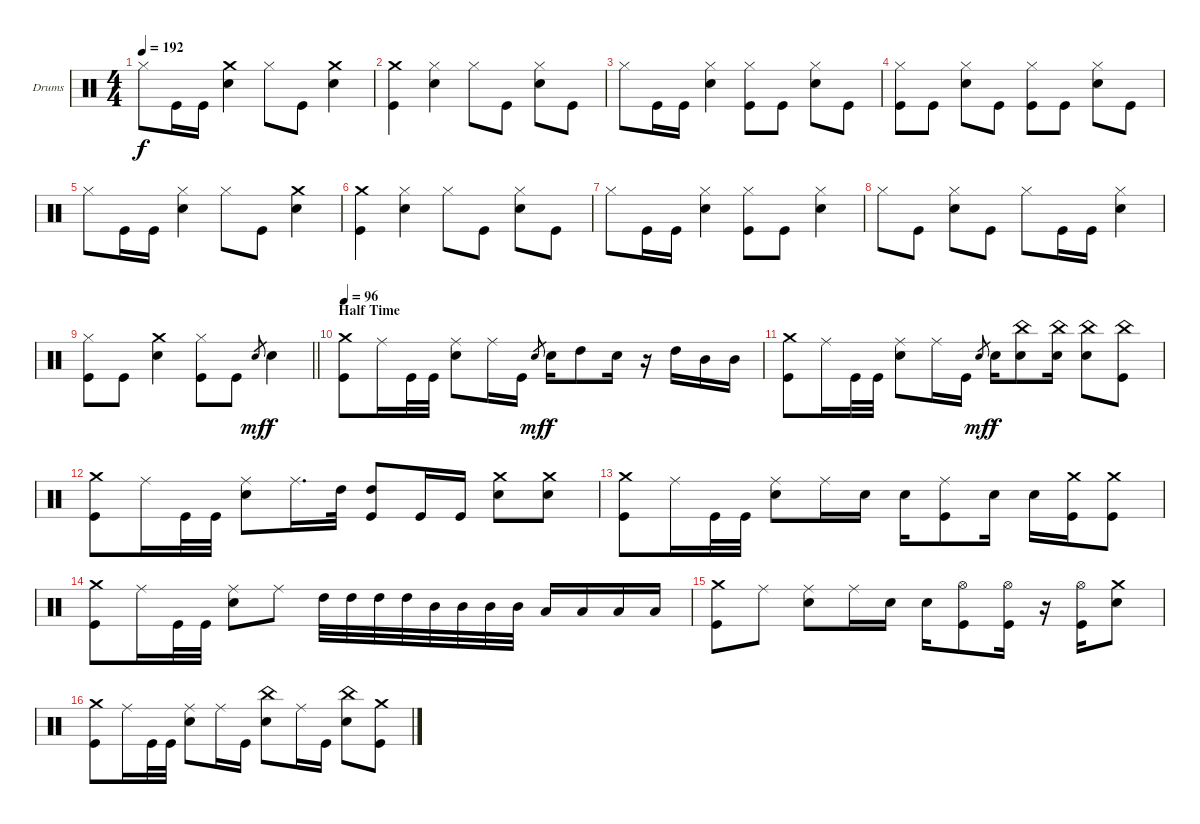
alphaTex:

\bracketExtendMode groupsimilarinstruments
\firstSystemTrackNameOrientation horizontal
\otherSystemsTrackNameOrientation horizontal
\track ("Lars Ulrich" "Drums") {instrument percussion}
\staff {score}
\articulation defaults
\ts (4 4)
\tempo 192
\clef neutral
\ks c "Hi-Hat (closed)".8{dy f} "Kick (hit)".16 "Kick (hit)".16
("Crash medium (hit)" "Snare (hit) 2").4 "Hi-Hat (closed)".8 "Kick (hit)".8 ("Crash medium (hit)" "Snare (hit) 2").4 |
("Crash medium (hit)" "Kick (hit)").4 ("Hi-Hat (closed)" "Snare (hit) 2").4 "Hi-Hat (closed)".8 "Kick (hit)".8 ("Hi-Hat (closed)" "Snare (hit) 2").8 "Kick (hit)".8 |
"Hi-Hat (closed)".8 "Kick (hit)".16 "Kick (hit)".16 ("Hi-Hat (closed)" "Snare (hit) 2").4 ("Hi-Hat (closed)" "Kick (hit)").8 "Kick (hit)".8 ("Hi-Hat (closed)" "Snare (hit) 2").8 "Kick (hit)".8 |
("Hi-Hat (closed)" "Kick (hit)").8 "Kick (hit)".8 ("Hi-Hat (closed)" "Snare (hit) 2").8 "Kick (hit)".8 ("Hi-Hat (closed)" "Kick (hit)").8 "Kick (hit)".8 ("Hi-Hat (closed)" "Snare (hit) 2").8 "Kick (hit)".8 |
"Hi-Hat (closed)".8 "Kick (hit)".16 "Kick (hit)".16 ("Hi-Hat (closed)" "Snare (hit) 2").4 "Hi-Hat (closed)".8 "Kick (hit)".8 ("Crash medium (hit)" "Snare (hit) 2").4 |
("Crash medium (hit)" "Kick (hit)").4 ("Hi-Hat (closed)" "Snare (hit) 2").4 "Hi-Hat (closed)".8 "Kick (hit)".8 ("Hi-Hat (closed)" "Snare (hit) 2").8 "Kick (hit)".8 |
"Hi-Hat (closed)".8 "Kick (hit)".16 "Kick (hit)".16 ("Hi-Hat (closed)" "Snare (hit) 2").4 ("Hi-Hat (closed)" "Kick (hit)").8 "Kick (hit)".8 ("Hi-Hat (closed)" "Snare (hit) 2").4 |
"Hi-Hat (closed)".8 "Kick (hit)".8 ("Hi-Hat (closed)" "Snare (hit) 2").8 "Kick (hit)".8 "Hi-Hat (closed)".8 "Kick (hit)".16 "Kick (hit)".16 ("Hi-Hat (closed)" "Snare (hit) 2").4 |
\barLineRight lightlight
("Hi-Hat (closed)" "Kick (hit)").8 "Kick (hit)".8 ("Crash medium (hit)" "Snare (hit) 2").4 ("Hi-Hat (closed)" "Kick (hit)").8 "Kick (hit)".8 "Snare (hit) 2".8{gr dy mf} "Snare (hit) 2".4{dy f} |
\section ("" "Half Time")
\tempo 96
("Crash medium (hit)" "Kick (hit)").8 "Ride (middle)".16 "Kick (hit)".32 "Kick (hit)".32 ("Ride (middle)" "Snare (hit) 2").8 "Ride (middle)".16 "Kick (hit)".16 "Snare (hit) 2".8{gr dy mf} "Snare (hit) 2".16{dy f} "High Tom (hit)".8 "Snare (hit) 2".16 r.16 "High Tom (hit)".16 "Mid Tom (hit)".16 "Mid Tom (hit)".16 |
("Crash medium (hit)" "Kick (hit)").8 "Ride (middle)".16 "Kick (hit)".32 "Kick (hit)".32 ("Ride (middle)" "Snare (hit) 2").8 "Ride (middle)".16 "Kick (hit)".16 "Snare (hit) 2".8{gr dy mf} "Snare (hit) 2".16{dy f} ("China (hit)" "Snare (hit) 2").8 ("China (hit)" "Snare (hit) 2").16 ("China (hit)" "Snare (hit) 2").8 ("China (hit)" "Kick (hit)").8 |
("Crash medium (hit)" "Kick (hit)").8 "Ride (middle)".16 "Kick (hit)".32 "Kick (hit)".32 ("Ride (middle)" "Snare (hit) 2").8 "Ride (middle)".16{d} "High Tom (hit)".32 ("High Tom (hit)" "Kick (hit)").8 "Kick (hit)".16 "Kick (hit)".16 ("Crash medium (hit)" "Snare (hit) 2").8 ("Crash medium (hit)" "Snare (hit) 2").8 |
("Crash medium (hit)" "Kick (hit)").8 "Ride (middle)".16 "Kick (hit)".32 "Kick (hit)".32 ("Ride (middle)" "Snare (hit) 2").8 "Ride (middle)".16 "Snare (hit) 2".16 "Snare (hit) 2".16 ("Ride (middle)" "Kick (hit)").8 "Snare (hit) 2".16 "Snare (hit) 2".16 ("Crash medium (hit)" "Kick (hit)").16 ("Crash medium (hit)" "Kick (hit)").8 |
("Crash medium (hit)" "Kick (hit)").8 "Ride (middle)".16 "Kick (hit)".32 "Kick (hit)".32 ("Ride (middle)" "Snare (hit) 2").8 "Ride (middle)".8 "High Tom (hit)".32 "High Tom (hit)".32 "High Tom (hit)".32 "High Tom (hit)".32 "Mid Tom (hit)".32 "Mid Tom (hit)".32 "Mid Tom (hit)".32 "Mid Tom (hit)".32 "Low Tom (hit)".16 "Low Tom (hit)".16 "Low Tom (hit)".16 "Low Tom (hit)".16 |
("Crash medium (hit)" "Kick (hit)").8 "Ride (middle)".8 ("Ride (middle)" "Snare (hit) 2").8 "Ride (middle)".16 "Snare (hit) 2".16 "Snare (hit) 2".16 ("Hi-Hat (open)" "Kick (hit)").8 ("Hi-Hat (open)" "Kick (hit)").16 r.16 ("Hi-Hat (open)" "Kick (hit)").16 ("Crash medium (hit)" "Snare (hit) 2").8 |
("Crash medium (hit)" "Kick (hit)").8 "Ride (middle)".16 "Kick (hit)".32 "Kick (hit)".32 ("Ride (middle)" "Snare (hit) 2").8 "Ride (middle)".16 "Kick (hit)".16 ("China (hit)" "Snare (hit) 2").8 "Ride (middle)".16 "Kick (hit)".16 ("China (hit)" "Snare (hit) 2").8 ("Crash medium (hit)" "Kick (hit)").8
